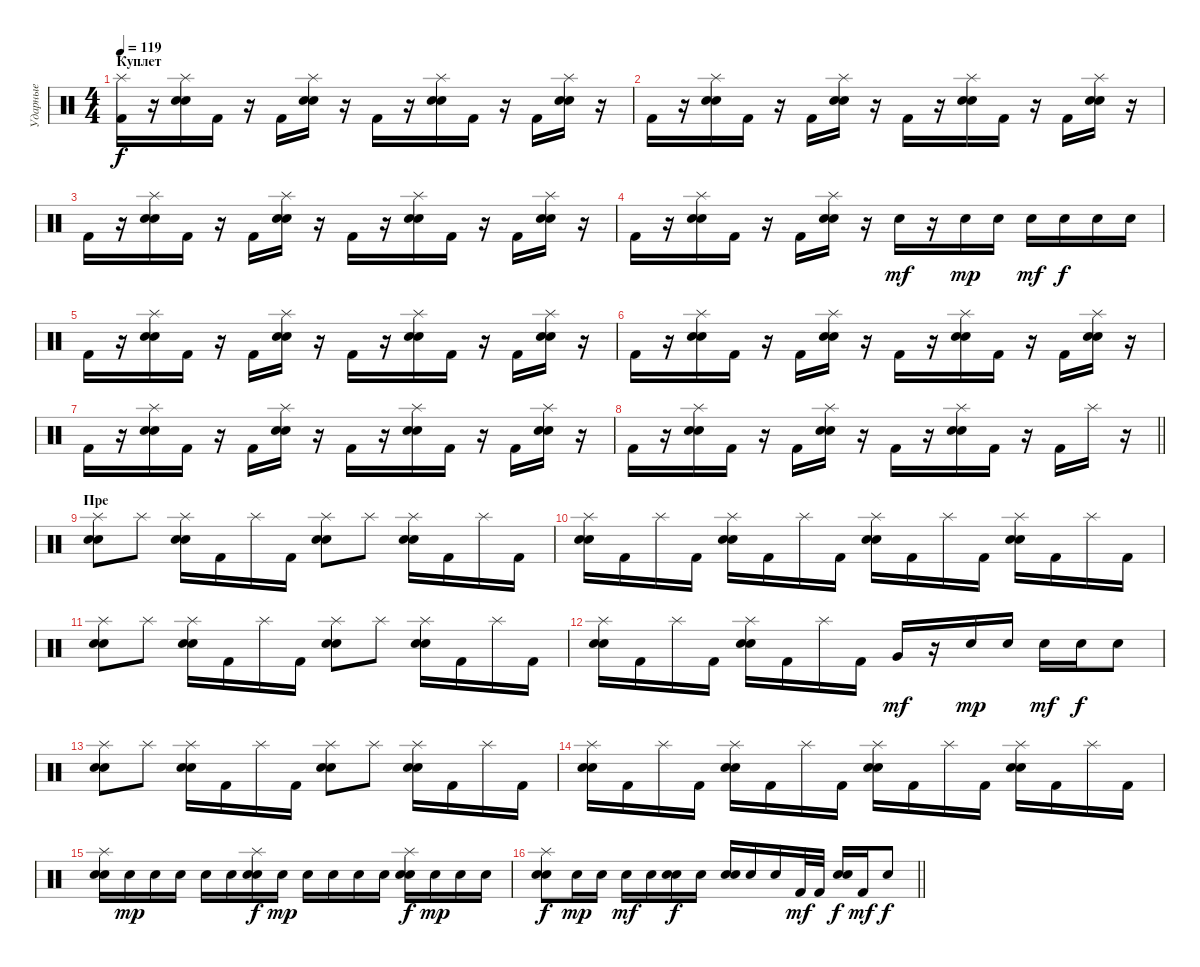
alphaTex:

\track ("Ударные" "Ударные") {instrument percussion}
\staff {score}
\articulation defaults
\ts (4 4)
\section ("" "Куплет")
\tempo 119
\clef neutral
\ks c
("Splash (hit)" "Kick (hit) 2").16{dy f} r.16 ("Splash (hit)" "Electric Snare (hit)" "Snare (hit) 2").16 "Kick (hit) 2".16 r.16 "Kick (hit) 2".16 ("Splash (hit)" "Electric Snare (hit)" "Snare (hit) 2").16 r.16 "Kick (hit) 2".16 r.16 ("Splash (hit)" "Electric Snare (hit)" "Snare (hit) 2").16 "Kick (hit) 2".16 r.16 "Kick (hit) 2".16 ("Splash (hit)" "Electric Snare (hit)" "Snare (hit) 2").16 r.16 |
"Kick (hit) 2".16 r.16 ("Splash (hit)" "Electric Snare (hit)" "Snare (hit) 2").16 "Kick (hit) 2".16 r.16 "Kick (hit) 2".16 ("Splash (hit)" "Electric Snare (hit)" "Snare (hit) 2").16 r.16 "Kick (hit) 2".16 r.16 ("Splash (hit)" "Electric Snare (hit)" "Snare (hit) 2").16 "Kick (hit) 2".16 r.16 "Kick (hit) 2".16 ("Splash (hit)" "Electric Snare (hit)" "Snare (hit) 2").16 r.16 |
"Kick (hit) 2".16 r.16 ("Splash (hit)" "Electric Snare (hit)" "Snare (hit) 2").16 "Kick (hit) 2".16 r.16 "Kick (hit) 2".16 ("Splash (hit)" "Electric Snare (hit)" "Snare (hit) 2").16 r.16 "Kick (hit) 2".16 r.16 ("Splash (hit)" "Electric Snare (hit)" "Snare (hit) 2").16 "Kick (hit) 2".16 r.16 "Kick (hit) 2".16 ("Splash (hit)" "Electric Snare (hit)" "Snare (hit) 2").16 r.16 |
"Kick (hit) 2".16 r.16 ("Splash (hit)" "Electric Snare (hit)" "Snare (hit) 2").16 "Kick (hit) 2".16 r.16 "Kick (hit) 2".16 ("Splash (hit)" "Electric Snare (hit)" "Snare (hit) 2").16 r.16 "Electric Snare (hit)".16{dy mf} r.16 "Electric Snare (hit)".16{dy mp} "Electric Snare (hit)".16 "Electric Snare (hit)".16{dy mf} "Electric Snare (hit)".16{dy f} "Electric Snare (hit)".16 "Electric Snare (hit)".16 |
"Kick (hit) 2".16 r.16 ("Splash (hit)" "Electric Snare (hit)" "Snare (hit) 2").16 "Kick (hit) 2".16 r.16 "Kick (hit) 2".16 ("Splash (hit)" "Electric Snare (hit)" "Snare (hit) 2").16 r.16 "Kick (hit) 2".16 r.16 ("Splash (hit)" "Electric Snare (hit)" "Snare (hit) 2").16 "Kick (hit) 2".16 r.16 "Kick (hit) 2".16 ("Splash (hit)" "Electric Snare (hit)" "Snare (hit) 2").16 r.16 |
"Kick (hit) 2".16 r.16 ("Splash (hit)" "Electric Snare (hit)" "Snare (hit) 2").16 "Kick (hit) 2".16 r.16 "Kick (hit) 2".16 ("Splash (hit)" "Electric Snare (hit)" "Snare (hit) 2").16 r.16 "Kick (hit) 2".16 r.16 ("Splash (hit)" "Electric Snare (hit)" "Snare (hit) 2").16 "Kick (hit) 2".16 r.16 "Kick (hit) 2".16 ("Splash (hit)" "Electric Snare (hit)" "Snare (hit) 2").16 r.16 |
"Kick (hit) 2".16 r.16 ("Splash (hit)" "Electric Snare (hit)" "Snare (hit) 2").16 "Kick (hit) 2".16 r.16 "Kick (hit) 2".16 ("Splash (hit)" "Electric Snare (hit)" "Snare (hit) 2").16 r.16 "Kick (hit) 2".16 r.16 ("Splash (hit)" "Electric Snare (hit)" "Snare (hit) 2").16 "Kick (hit) 2".16 r.16 "Kick (hit) 2".16 ("Splash (hit)" "Electric Snare (hit)" "Snare (hit) 2").16 r.16 |
\barLineRight lightlight "Kick (hit) 2".16
r.16 ("Splash (hit)" "Electric Snare (hit)" "Snare (hit) 2").16 "Kick (hit) 2".16 r.16 "Kick (hit) 2".16 ("Splash (hit)" "Electric Snare (hit)" "Snare (hit) 2").16 r.16 "Kick (hit) 2".16 r.16 ("Splash (hit)" "Electric Snare (hit)" "Snare (hit) 2").16 "Kick (hit) 2".16 r.16 "Kick (hit) 2".16 "Splash (hit)".16 r.16 |
\section ("" "Пре")
("Splash (hit)" "Electric Snare (hit)" "Snare (hit) 2").8 "Splash (hit)".8 ("Splash (hit)" "Electric Snare (hit)" "Snare (hit) 2").16 "Kick (hit) 2".16 "Splash (hit)".16 "Kick (hit) 2".16 ("Splash (hit)" "Electric Snare (hit)" "Snare (hit) 2").8 "Splash (hit)".8 ("Splash (hit)" "Electric Snare (hit)" "Snare (hit) 2").16 "Kick (hit) 2".16 "Splash (hit)".16 "Kick (hit) 2".16 |
("Splash (hit)" "Electric Snare (hit)" "Snare (hit) 2").16 "Kick (hit) 2".16 "Splash (hit)".16 "Kick (hit) 2".16 ("Splash (hit)" "Electric Snare (hit)" "Snare (hit) 2").16 "Kick (hit) 2".16 "Splash (hit)".16 "Kick (hit) 2".16 ("Splash (hit)" "Electric Snare (hit)" "Snare (hit) 2").16 "Kick (hit) 2".16 "Splash (hit)".16 "Kick (hit) 2".16 ("Splash (hit)" "Electric Snare (hit)" "Snare (hit) 2").16 "Kick (hit) 2".16 "Splash (hit)".16 "Kick (hit) 2".16 |
("Splash (hit)" "Electric Snare (hit)" "Snare (hit) 2").8 "Splash (hit)".8 ("Splash (hit)" "Electric Snare (hit)" "Snare (hit) 2").16 "Kick (hit) 2".16 "Splash (hit)".16 "Kick (hit) 2".16 ("Splash (hit)" "Electric Snare (hit)" "Snare (hit) 2").8 "Splash (hit)".8 ("Splash (hit)" "Electric Snare (hit)" "Snare (hit) 2").16 "Kick (hit) 2".16 "Splash (hit)".16 "Kick (hit) 2".16 |
("Splash (hit)" "Electric Snare (hit)" "Snare (hit) 2").16 "Kick (hit) 2".16 "Splash (hit)".16 "Kick (hit) 2".16 ("Splash (hit)" "Electric Snare (hit)" "Snare (hit) 2").16 "Kick (hit) 2".16 "Splash (hit)".16 "Kick (hit) 2".16 "Very Low Tom (hit)".16{dy mf} r.16 "Electric Snare (hit)".16{dy mp} "Electric Snare (hit)".16 "Electric Snare (hit)".16{dy mf} "Electric Snare (hit)".16{dy f} "Electric Snare (hit)".8 |
("Splash (hit)" "Electric Snare (hit)" "Snare (hit) 2").8 "Splash (hit)".8 ("Splash (hit)" "Electric Snare (hit)" "Snare (hit) 2").16 "Kick (hit) 2".16 "Splash (hit)".16 "Kick (hit) 2".16 ("Splash (hit)" "Electric Snare (hit)" "Snare (hit) 2").8 "Splash (hit)".8 ("Splash (hit)" "Electric Snare (hit)" "Snare (hit) 2").16 "Kick (hit) 2".16 "Splash (hit)".16 "Kick (hit) 2".16 |
("Splash (hit)" "Electric Snare (hit)" "Snare (hit) 2").16 "Kick (hit) 2".16 "Splash (hit)".16 "Kick (hit) 2".16 ("Splash (hit)" "Electric Snare (hit)" "Snare (hit) 2").16 "Kick (hit) 2".16 "Splash (hit)".16 "Kick (hit) 2".16 ("Splash (hit)" "Electric Snare (hit)" "Snare (hit) 2").16 "Kick (hit) 2".16 "Splash (hit)".16 "Kick (hit) 2".16 ("Splash (hit)" "Electric Snare (hit)" "Snare (hit) 2").16 "Kick (hit) 2".16 "Splash (hit)".16 "Kick (hit) 2".16 |
("Splash (hit)" "Electric Snare (hit)" "Snare (hit) 2").16 "Electric Snare (hit)".16{dy mp} "Electric Snare (hit)".16 "Electric Snare (hit)".16 "Electric Snare (hit)".16 "Electric Snare (hit)".16 ("Splash (hit)" "Electric Snare (hit)" "Snare (hit) 2").16{dy f} "Electric Snare (hit)".16{dy mp} "Electric Snare (hit)".16 "Electric Snare (hit)".16 "Electric Snare (hit)".16 "Electric Snare (hit)".16 ("Splash (hit)" "Electric Snare (hit)" "Snare (hit) 2").16{dy f} "Electric Snare (hit)".16{dy mp} "Electric Snare (hit)".16 "Electric Snare (hit)".16 |
\barLineRight lightlight
("Splash (hit)" "Electric Snare (hit)" "Snare (hit) 2").8{dy f} "Electric Snare (hit)".16{dy mp} "Electric Snare (hit)".16 "Electric Snare (hit)".16{dy mf} "Electric Snare (hit)".16 ("Electric Snare (hit)" "Snare (hit) 2").16{dy f} "Electric Snare (hit)".16 ("Electric Snare (hit)" "Snare (hit) 2").16 "Electric Snare (hit)".16 "Electric Snare (hit)".16 "Kick (hit) 2".32{dy mf} "Kick (hit) 2".32 ("Electric Snare (hit)" "Snare (hit) 2").16{dy f} "Kick (hit) 2".16{dy mf} "Electric Snare (hit)".8{dy f}
